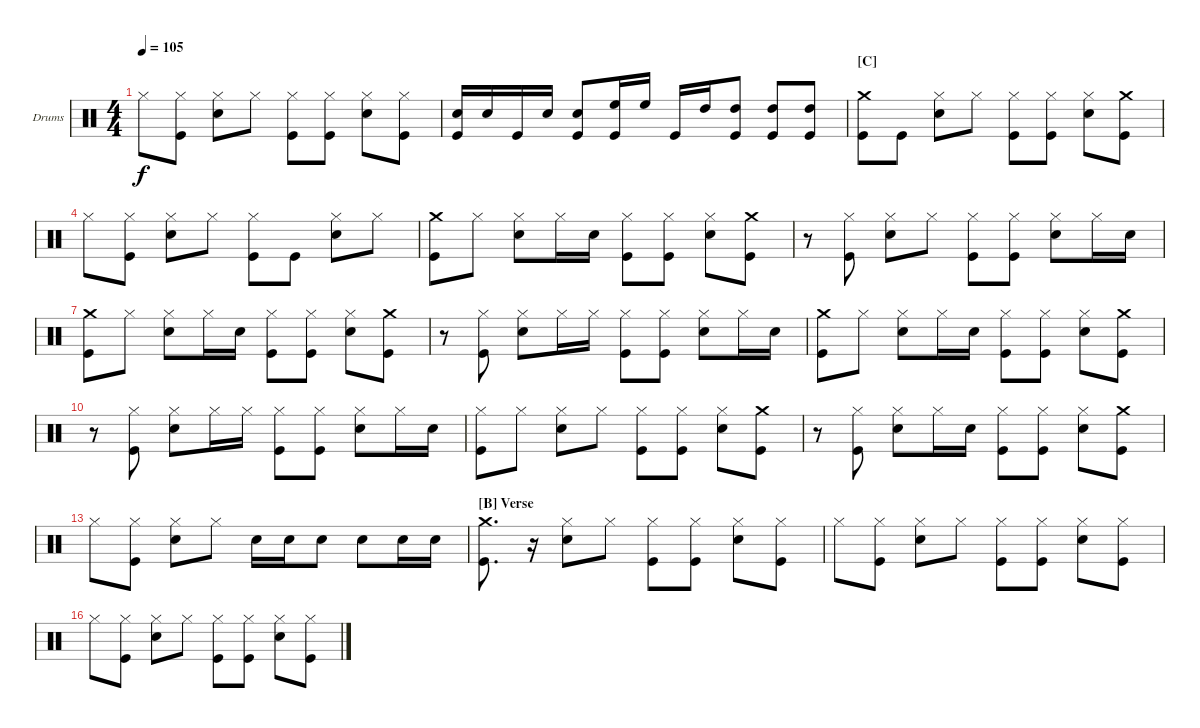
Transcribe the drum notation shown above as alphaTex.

\bracketExtendMode nobrackets
\firstSystemTrackNameOrientation horizontal
\otherSystemsTrackNameOrientation horizontal
\defaultBarNumberDisplay FirstOfSystem
\track ("Drumkit" "Drums") {instrument percussion}
\staff {score}
\articulation defaults
\ts (4 4)
\tempo 105
\clef neutral
\ks c "Hi-Hat (closed)".8{dy f}
("Kick (hit)" "Hi-Hat (closed)").8 ("Snare (hit) 2" "Hi-Hat (closed)").8 "Hi-Hat (closed)".8 ("Kick (hit)" "Hi-Hat (closed)").8 ("Kick (hit)" "Hi-Hat (closed)").8 ("Snare (hit) 2" "Hi-Hat (closed)").8 ("Kick (hit)" "Hi-Hat (closed)").8 |
("Kick (hit)" "Snare (hit) 2").16 "Snare (hit) 2".16 "Kick (hit)".16 "Snare (hit) 2".16 ("Kick (hit)" "Snare (hit) 2").8 ("Kick (hit)" "High Floor Tom (hit)").16 "High Floor Tom (hit)".16 "Kick (hit)".16 "High Tom (hit)".16 ("Kick (hit)" "High Tom (hit)").8 ("Kick (hit)" "High Tom (hit)").8 ("Kick (hit)" "High Tom (hit)").8 |
\section ("C" "")
("Kick (hit)" "Crash medium (hit)").8 "Kick (hit)".8 ("Snare (hit) 2" "Hi-Hat (closed)").8 "Hi-Hat (closed)".8 ("Kick (hit)" "Hi-Hat (closed)").8 ("Kick (hit)" "Hi-Hat (closed)").8 ("Snare (hit) 2" "Hi-Hat (closed)").8 ("Kick (hit)" "Crash medium (hit)").8 |
"Hi-Hat (closed)".8 ("Kick (hit)" "Hi-Hat (closed)").8 ("Snare (hit) 2" "Hi-Hat (closed)").8 "Hi-Hat (closed)".8 ("Kick (hit)" "Hi-Hat (closed)").8 "Kick (hit)".8 ("Snare (hit) 2" "Hi-Hat (closed)").8 "Hi-Hat (closed)".8 |
("Kick (hit)" "Crash medium (hit)").8 "Hi-Hat (closed)".8 ("Snare (hit) 2" "Hi-Hat (closed)").8 "Hi-Hat (closed)".16 "Snare (hit) 2".16 ("Kick (hit)" "Hi-Hat (closed)").8 ("Kick (hit)" "Hi-Hat (closed)").8 ("Snare (hit) 2" "Hi-Hat (closed)").8 ("Kick (hit)" "Crash medium (hit)").8 |
r.8 ("Kick (hit)" "Hi-Hat (closed)").8 ("Snare (hit) 2" "Hi-Hat (closed)").8 "Hi-Hat (closed)".8 ("Kick (hit)" "Hi-Hat (closed)").8 ("Kick (hit)" "Hi-Hat (closed)").8 ("Snare (hit) 2" "Hi-Hat (closed)").8 "Hi-Hat (closed)".16 "Snare (hit) 2".16 |
("Kick (hit)" "Crash medium (hit)").8 "Hi-Hat (closed)".8 ("Snare (hit) 2" "Hi-Hat (closed)").8 "Hi-Hat (closed)".16 "Snare (hit) 2".16 ("Kick (hit)" "Hi-Hat (closed)").8 ("Kick (hit)" "Hi-Hat (closed)").8 ("Snare (hit) 2" "Hi-Hat (closed)").8 ("Kick (hit)" "Crash medium (hit)").8 |
r.8 ("Kick (hit)" "Hi-Hat (closed)").8 ("Snare (hit) 2" "Hi-Hat (closed)").8 "Hi-Hat (closed)".16 "Hi-Hat (closed)".16 ("Kick (hit)" "Hi-Hat (closed)").8 ("Kick (hit)" "Hi-Hat (closed)").8 ("Snare (hit) 2" "Hi-Hat (closed)").8 "Hi-Hat (closed)".16 "Snare (hit) 2".16 |
("Kick (hit)" "Crash medium (hit)").8 "Hi-Hat (closed)".8 ("Snare (hit) 2" "Hi-Hat (closed)").8 "Hi-Hat (closed)".16 "Snare (hit) 2".16 ("Kick (hit)" "Hi-Hat (closed)").8 ("Kick (hit)" "Hi-Hat (closed)").8 ("Snare (hit) 2" "Hi-Hat (closed)").8 ("Kick (hit)" "Crash medium (hit)").8 |
r.8 ("Kick (hit)" "Hi-Hat (closed)").8 ("Snare (hit) 2" "Hi-Hat (closed)").8 "Hi-Hat (closed)".16 "Hi-Hat (closed)".16 ("Kick (hit)" "Hi-Hat (closed)").8 ("Kick (hit)" "Hi-Hat (closed)").8 ("Snare (hit) 2" "Hi-Hat (closed)").8 "Hi-Hat (closed)".16 "Snare (hit) 2".16 |
("Kick (hit)" "Hi-Hat (closed)").8 "Hi-Hat (closed)".8 ("Snare (hit) 2" "Hi-Hat (closed)").8 "Hi-Hat (closed)".8 ("Kick (hit)" "Hi-Hat (closed)").8 ("Kick (hit)" "Hi-Hat (closed)").8 ("Snare (hit) 2" "Hi-Hat (closed)").8 ("Kick (hit)" "Crash medium (hit)").8 |
r.8 ("Kick (hit)" "Hi-Hat (closed)").8 ("Snare (hit) 2" "Hi-Hat (closed)").8 "Hi-Hat (closed)".16 "Snare (hit) 2".16 ("Kick (hit)" "Hi-Hat (closed)").8 ("Kick (hit)" "Hi-Hat (closed)").8 ("Snare (hit) 2" "Hi-Hat (closed)").8 ("Kick (hit)" "Crash medium (hit)").8 |
"Hi-Hat (closed)".8 ("Kick (hit)" "Hi-Hat (closed)").8 ("Snare (hit) 2" "Hi-Hat (closed)").8 "Hi-Hat (closed)".8 "Snare (hit) 2".16 "Snare (hit) 2".16 "Snare (hit) 2".8 "Snare (hit) 2".8 "Snare (hit) 2".16 "Snare (hit) 2".16 |
\section ("B" "Verse")
("Kick (hit)" "Crash medium (hit)").8{d} r.16 ("Snare (hit) 2" "Hi-Hat (closed)").8 "Hi-Hat (closed)".8 ("Kick (hit)" "Hi-Hat (closed)").8 ("Kick (hit)" "Hi-Hat (closed)").8 ("Snare (hit) 2" "Hi-Hat (closed)").8 ("Kick (hit)" "Hi-Hat (closed)").8 |
"Hi-Hat (closed)".8 ("Kick (hit)" "Hi-Hat (closed)").8 ("Snare (hit) 2" "Hi-Hat (closed)").8 "Hi-Hat (closed)".8 ("Kick (hit)" "Hi-Hat (closed)").8 ("Kick (hit)" "Hi-Hat (closed)").8 ("Snare (hit) 2" "Hi-Hat (closed)").8 ("Kick (hit)" "Hi-Hat (closed)").8 |
"Hi-Hat (closed)".8 ("Kick (hit)" "Hi-Hat (closed)").8 ("Snare (hit) 2" "Hi-Hat (closed)").8 "Hi-Hat (closed)".8 ("Kick (hit)" "Hi-Hat (closed)").8 ("Kick (hit)" "Hi-Hat (closed)").8 ("Snare (hit) 2" "Hi-Hat (closed)").8 ("Kick (hit)" "Hi-Hat (closed)").8
